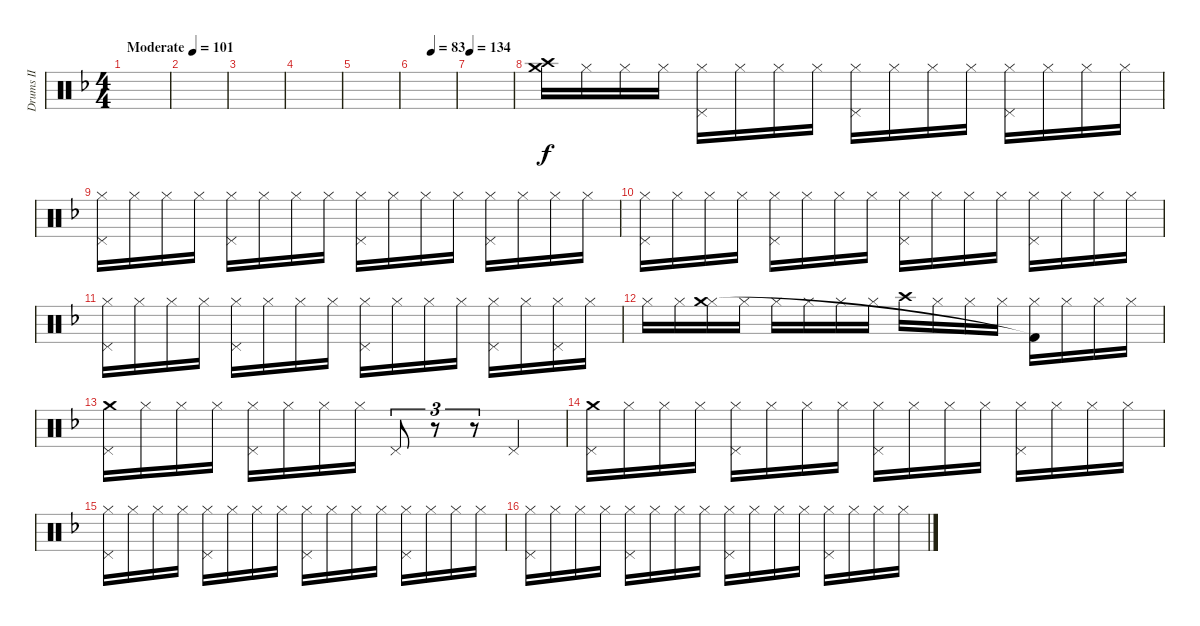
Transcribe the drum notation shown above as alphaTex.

\track ("Drums II" "Drums II") {instrument percussion}
\staff {score}
\articulation defaults
\ts (4 4)
\tempo (101 "Moderate")
\clef neutral
\ks f
|
|
|
|
|
\tempo (83 0.4375)
|
\tempo 134
|
("Crash medium (hit)" "Crash high (hit)").16 "Hi-Hat (closed)".16 "Hi-Hat (closed)".16 "Hi-Hat (closed)".16 ("Hi-Hat (closed)" "Pedal Hi-Hat (hit)").16 "Hi-Hat (closed)".16 "Hi-Hat (closed)".16 "Hi-Hat (closed)".16 ("Hi-Hat (closed)" "Pedal Hi-Hat (hit)").16 "Hi-Hat (closed)".16 "Hi-Hat (closed)".16 "Hi-Hat (closed)".16 ("Hi-Hat (closed)" "Pedal Hi-Hat (hit)").16 "Hi-Hat (closed)".16 "Hi-Hat (closed)".16 "Hi-Hat (closed)".16 |
("Hi-Hat (closed)" "Pedal Hi-Hat (hit)").16 "Hi-Hat (closed)".16 "Hi-Hat (closed)".16 "Hi-Hat (closed)".16 ("Hi-Hat (closed)" "Pedal Hi-Hat (hit)").16 "Hi-Hat (closed)".16 "Hi-Hat (closed)".16 "Hi-Hat (closed)".16 ("Hi-Hat (closed)" "Pedal Hi-Hat (hit)").16 "Hi-Hat (closed)".16 "Hi-Hat (closed)".16 "Hi-Hat (closed)".16 ("Hi-Hat (closed)" "Pedal Hi-Hat (hit)").16 "Hi-Hat (closed)".16 "Hi-Hat (closed)".16 "Hi-Hat (closed)".16 |
("Hi-Hat (closed)" "Pedal Hi-Hat (hit)").16 "Hi-Hat (closed)".16 "Hi-Hat (closed)".16 "Hi-Hat (closed)".16 ("Hi-Hat (closed)" "Pedal Hi-Hat (hit)").16 "Hi-Hat (closed)".16 "Hi-Hat (closed)".16 "Hi-Hat (closed)".16 ("Hi-Hat (closed)" "Pedal Hi-Hat (hit)").16 "Hi-Hat (closed)".16 "Hi-Hat (closed)".16 "Hi-Hat (closed)".16 ("Hi-Hat (closed)" "Pedal Hi-Hat (hit)").16 "Hi-Hat (closed)".16 "Hi-Hat (closed)".16 "Hi-Hat (closed)".16 |
("Hi-Hat (closed)" "Pedal Hi-Hat (hit)").16 "Hi-Hat (closed)".16 "Hi-Hat (closed)".16 "Hi-Hat (closed)".16 ("Hi-Hat (closed)" "Pedal Hi-Hat (hit)").16 "Hi-Hat (closed)".16 "Hi-Hat (closed)".16 "Hi-Hat (closed)".16 ("Hi-Hat (closed)" "Pedal Hi-Hat (hit)").16 "Hi-Hat (closed)".16 "Hi-Hat (closed)".16 "Hi-Hat (closed)".16 ("Hi-Hat (closed)" "Pedal Hi-Hat (hit)").16 "Hi-Hat (closed)".16 ("Hi-Hat (closed)" "Pedal Hi-Hat (hit)").16 "Hi-Hat (closed)".16 |
"Hi-Hat (closed)".16 "Hi-Hat (closed)".16 ("Hi-Hat (closed)" "Crash medium (hit)").16 "Hi-Hat (closed)".16 "Hi-Hat (closed)".16 "Hi-Hat (closed)".16 "Hi-Hat (closed)".16 "Hi-Hat (closed)".16 "Crash high (hit)".16 "Hi-Hat (closed)".16 "Hi-Hat (closed)".16 "Hi-Hat (closed)".16 ("Hi-Hat (closed)" "Kick (hit) 2"{t}).16 "Hi-Hat (closed)".16 "Hi-Hat (closed)".16 "Hi-Hat (closed)".16 |
("Crash medium (hit)" "Pedal Hi-Hat (hit)").16 "Hi-Hat (closed)".16 "Hi-Hat (closed)".16 "Hi-Hat (closed)".16 ("Hi-Hat (closed)" "Pedal Hi-Hat (hit)").16 "Hi-Hat (closed)".16 "Hi-Hat (closed)".16 "Hi-Hat (closed)".16 "Pedal Hi-Hat (hit)".8{tu (3 2)} r.8{tu (3 2)} r.8{tu (3 2)} "Pedal Hi-Hat (hit)".4 |
("Crash medium (hit)" "Pedal Hi-Hat (hit)").16 "Hi-Hat (closed)".16 "Hi-Hat (closed)".16 "Hi-Hat (closed)".16 ("Hi-Hat (closed)" "Pedal Hi-Hat (hit)").16 "Hi-Hat (closed)".16 "Hi-Hat (closed)".16 "Hi-Hat (closed)".16 ("Hi-Hat (closed)" "Pedal Hi-Hat (hit)").16 "Hi-Hat (closed)".16 "Hi-Hat (closed)".16 "Hi-Hat (closed)".16 ("Hi-Hat (closed)" "Pedal Hi-Hat (hit)").16 "Hi-Hat (closed)".16 "Hi-Hat (closed)".16 "Hi-Hat (closed)".16 |
("Hi-Hat (closed)" "Pedal Hi-Hat (hit)").16 "Hi-Hat (closed)".16 "Hi-Hat (closed)".16 "Hi-Hat (closed)".16 ("Hi-Hat (closed)" "Pedal Hi-Hat (hit)").16 "Hi-Hat (closed)".16 "Hi-Hat (closed)".16 "Hi-Hat (closed)".16 ("Hi-Hat (closed)" "Pedal Hi-Hat (hit)").16 "Hi-Hat (closed)".16 "Hi-Hat (closed)".16 "Hi-Hat (closed)".16 ("Hi-Hat (closed)" "Pedal Hi-Hat (hit)").16 "Hi-Hat (closed)".16 "Hi-Hat (closed)".16 "Hi-Hat (closed)".16 |
("Hi-Hat (closed)" "Pedal Hi-Hat (hit)").16 "Hi-Hat (closed)".16 "Hi-Hat (closed)".16 "Hi-Hat (closed)".16 ("Hi-Hat (closed)" "Pedal Hi-Hat (hit)").16 "Hi-Hat (closed)".16 "Hi-Hat (closed)".16 "Hi-Hat (closed)".16 ("Hi-Hat (closed)" "Pedal Hi-Hat (hit)").16 "Hi-Hat (closed)".16 "Hi-Hat (closed)".16 "Hi-Hat (closed)".16 ("Hi-Hat (closed)" "Pedal Hi-Hat (hit)").16 "Hi-Hat (closed)".16 "Hi-Hat (closed)".16 "Hi-Hat (closed)".16
